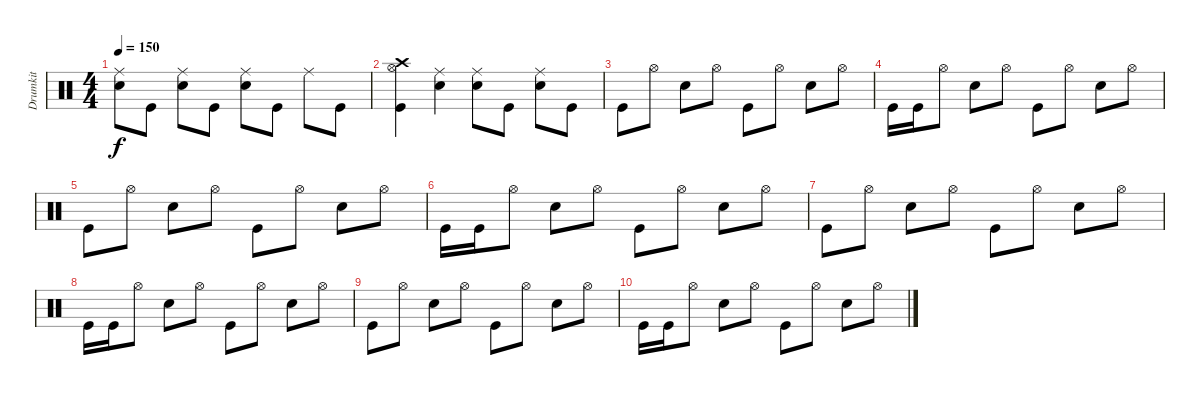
\track ("Drumkit" "Drumkit") {instrument percussion}
\staff {score}
\articulation defaults
\ts (4 4)
\tempo 150
\clef neutral
\ks c
("Ride (middle)" "Snare (hit) 2").8{dy f} "Kick (hit)".8 ("Ride (middle)" "Snare (hit) 2").8 "Kick (hit)".8 ("Ride (middle)" "Snare (hit) 2").8 "Kick (hit)".8 "Ride (middle)".8 "Kick (hit)".8 |
("Hi-Hat (open)" "Crash high (hit)" "Kick (hit)").4 ("Ride (middle)" "Snare (hit) 2").4 ("Ride (middle)" "Snare (hit) 2").8 "Kick (hit)".8 ("Ride (middle)" "Snare (hit) 2").8 "Kick (hit)".8 |
"Kick (hit)".8 "Hi-Hat (open)".8 "Snare (hit) 2".8 "Hi-Hat (open)".8 "Kick (hit)".8 "Hi-Hat (open)".8 "Snare (hit) 2".8 "Hi-Hat (open)".8 |
"Kick (hit)".16 "Kick (hit)".16 "Hi-Hat (open)".8 "Snare (hit) 2".8 "Hi-Hat (open)".8 "Kick (hit)".8 "Hi-Hat (open)".8 "Snare (hit) 2".8 "Hi-Hat (open)".8 |
"Kick (hit)".8 "Hi-Hat (open)".8 "Snare (hit) 2".8 "Hi-Hat (open)".8 "Kick (hit)".8 "Hi-Hat (open)".8 "Snare (hit) 2".8 "Hi-Hat (open)".8 |
"Kick (hit)".16 "Kick (hit)".16 "Hi-Hat (open)".8 "Snare (hit) 2".8 "Hi-Hat (open)".8 "Kick (hit)".8 "Hi-Hat (open)".8 "Snare (hit) 2".8 "Hi-Hat (open)".8 |
"Kick (hit)".8 "Hi-Hat (open)".8 "Snare (hit) 2".8 "Hi-Hat (open)".8 "Kick (hit)".8 "Hi-Hat (open)".8 "Snare (hit) 2".8 "Hi-Hat (open)".8 |
"Kick (hit)".16 "Kick (hit)".16 "Hi-Hat (open)".8 "Snare (hit) 2".8 "Hi-Hat (open)".8 "Kick (hit)".8 "Hi-Hat (open)".8 "Snare (hit) 2".8 "Hi-Hat (open)".8 |
"Kick (hit)".8 "Hi-Hat (open)".8 "Snare (hit) 2".8 "Hi-Hat (open)".8 "Kick (hit)".8 "Hi-Hat (open)".8 "Snare (hit) 2".8 "Hi-Hat (open)".8 |
"Kick (hit)".16 "Kick (hit)".16 "Hi-Hat (open)".8 "Snare (hit) 2".8 "Hi-Hat (open)".8 "Kick (hit)".8 "Hi-Hat (open)".8 "Snare (hit) 2".8 "Hi-Hat (open)".8
